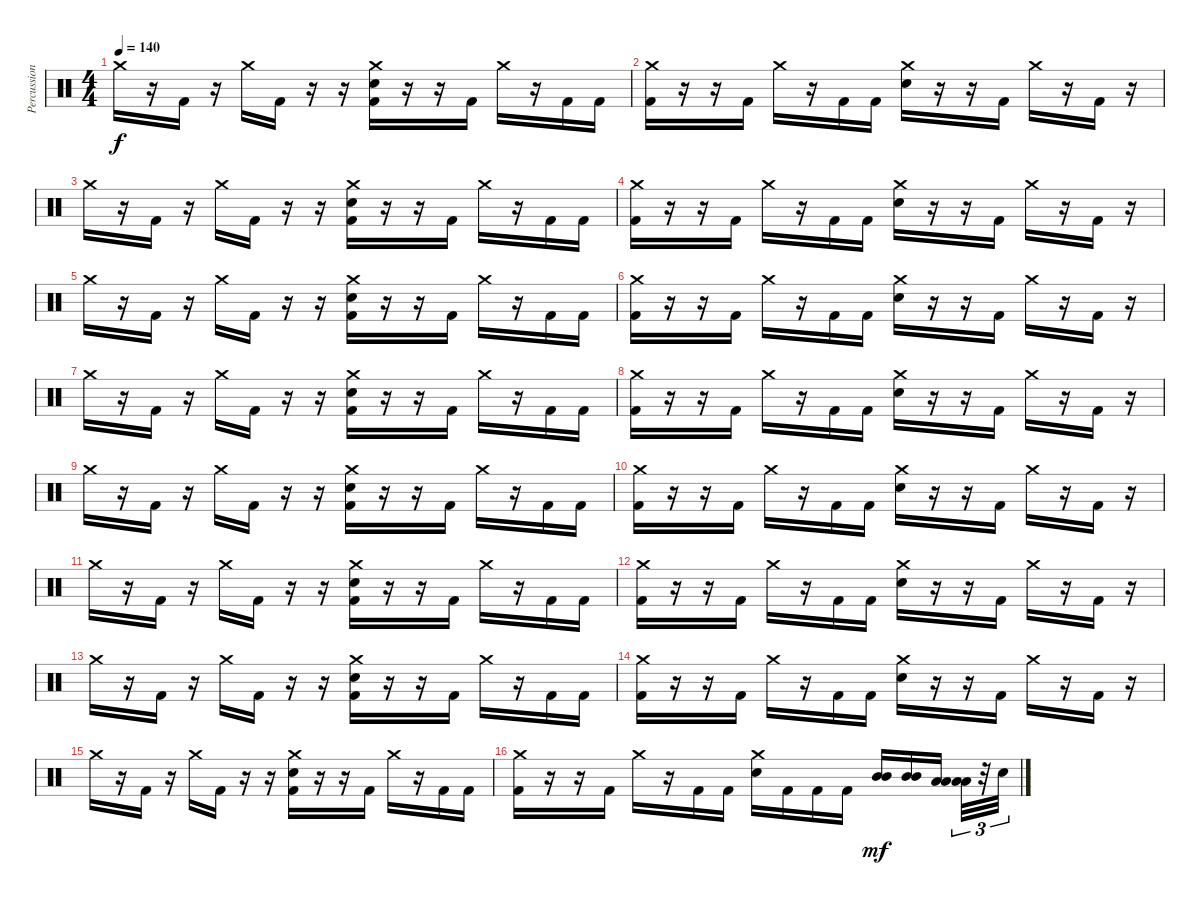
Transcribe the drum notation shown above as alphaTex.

\track ("Percussion" "Percussion") {instrument percussion}
\staff {score}
\articulation defaults
\ts (4 4)
\tempo 140
\clef neutral
\ks c "Crash medium (hit)".16{dy f}
r.16 "Kick (hit) 2".16 r.16 "Crash medium (hit)".16 "Kick (hit) 2".16 r.16 r.16 ("Crash medium (hit)" "Electric Snare (hit)" "Kick (hit) 2").16 r.16 r.16 "Kick (hit) 2".16 "Crash medium (hit)".16 r.16 "Kick (hit) 2".16 "Kick (hit) 2".16 |
("Crash medium (hit)" "Kick (hit) 2").16 r.16 r.16 "Kick (hit) 2".16 "Crash medium (hit)".16 r.16 "Kick (hit) 2".16 "Kick (hit) 2".16 ("Crash medium (hit)" "Electric Snare (hit)").16 r.16 r.16 "Kick (hit) 2".16 "Crash medium (hit)".16 r.16 "Kick (hit) 2".16 r.16 |
"Crash medium (hit)".16 r.16 "Kick (hit) 2".16 r.16 "Crash medium (hit)".16 "Kick (hit) 2".16 r.16 r.16 ("Crash medium (hit)" "Electric Snare (hit)" "Kick (hit) 2").16 r.16 r.16 "Kick (hit) 2".16 "Crash medium (hit)".16 r.16 "Kick (hit) 2".16 "Kick (hit) 2".16 |
("Crash medium (hit)" "Kick (hit) 2").16 r.16 r.16 "Kick (hit) 2".16 "Crash medium (hit)".16 r.16 "Kick (hit) 2".16 "Kick (hit) 2".16 ("Crash medium (hit)" "Electric Snare (hit)").16 r.16 r.16 "Kick (hit) 2".16 "Crash medium (hit)".16 r.16 "Kick (hit) 2".16 r.16 |
"Crash medium (hit)".16 r.16 "Kick (hit) 2".16 r.16 "Crash medium (hit)".16 "Kick (hit) 2".16 r.16 r.16 ("Crash medium (hit)" "Electric Snare (hit)" "Kick (hit) 2").16 r.16 r.16 "Kick (hit) 2".16 "Crash medium (hit)".16 r.16 "Kick (hit) 2".16 "Kick (hit) 2".16 |
("Crash medium (hit)" "Kick (hit) 2").16 r.16 r.16 "Kick (hit) 2".16 "Crash medium (hit)".16 r.16 "Kick (hit) 2".16 "Kick (hit) 2".16 ("Crash medium (hit)" "Electric Snare (hit)").16 r.16 r.16 "Kick (hit) 2".16 "Crash medium (hit)".16 r.16 "Kick (hit) 2".16 r.16 |
"Crash medium (hit)".16 r.16 "Kick (hit) 2".16 r.16 "Crash medium (hit)".16 "Kick (hit) 2".16 r.16 r.16 ("Crash medium (hit)" "Electric Snare (hit)" "Kick (hit) 2").16 r.16 r.16 "Kick (hit) 2".16 "Crash medium (hit)".16 r.16 "Kick (hit) 2".16 "Kick (hit) 2".16 |
("Crash medium (hit)" "Kick (hit) 2").16 r.16 r.16 "Kick (hit) 2".16 "Crash medium (hit)".16 r.16 "Kick (hit) 2".16 "Kick (hit) 2".16 ("Crash medium (hit)" "Electric Snare (hit)").16 r.16 r.16 "Kick (hit) 2".16 "Crash medium (hit)".16 r.16 "Kick (hit) 2".16 r.16 |
"Crash medium (hit)".16 r.16 "Kick (hit) 2".16 r.16 "Crash medium (hit)".16 "Kick (hit) 2".16 r.16 r.16 ("Crash medium (hit)" "Electric Snare (hit)" "Kick (hit) 2").16 r.16 r.16 "Kick (hit) 2".16 "Crash medium (hit)".16 r.16 "Kick (hit) 2".16 "Kick (hit) 2".16 |
("Crash medium (hit)" "Kick (hit) 2").16 r.16 r.16 "Kick (hit) 2".16 "Crash medium (hit)".16 r.16 "Kick (hit) 2".16 "Kick (hit) 2".16 ("Crash medium (hit)" "Electric Snare (hit)").16 r.16 r.16 "Kick (hit) 2".16 "Crash medium (hit)".16 r.16 "Kick (hit) 2".16 r.16 |
"Crash medium (hit)".16 r.16 "Kick (hit) 2".16 r.16 "Crash medium (hit)".16 "Kick (hit) 2".16 r.16 r.16 ("Crash medium (hit)" "Electric Snare (hit)" "Kick (hit) 2").16 r.16 r.16 "Kick (hit) 2".16 "Crash medium (hit)".16 r.16 "Kick (hit) 2".16 "Kick (hit) 2".16 |
("Crash medium (hit)" "Kick (hit) 2").16 r.16 r.16 "Kick (hit) 2".16 "Crash medium (hit)".16 r.16 "Kick (hit) 2".16 "Kick (hit) 2".16 ("Crash medium (hit)" "Electric Snare (hit)").16 r.16 r.16 "Kick (hit) 2".16 "Crash medium (hit)".16 r.16 "Kick (hit) 2".16 r.16 |
"Crash medium (hit)".16 r.16 "Kick (hit) 2".16 r.16 "Crash medium (hit)".16 "Kick (hit) 2".16 r.16 r.16 ("Crash medium (hit)" "Electric Snare (hit)" "Kick (hit) 2").16 r.16 r.16 "Kick (hit) 2".16 "Crash medium (hit)".16 r.16 "Kick (hit) 2".16 "Kick (hit) 2".16 |
("Crash medium (hit)" "Kick (hit) 2").16 r.16 r.16 "Kick (hit) 2".16 "Crash medium (hit)".16 r.16 "Kick (hit) 2".16 "Kick (hit) 2".16 ("Crash medium (hit)" "Electric Snare (hit)").16 r.16 r.16 "Kick (hit) 2".16 "Crash medium (hit)".16 r.16 "Kick (hit) 2".16 r.16 |
"Crash medium (hit)".16 r.16 "Kick (hit) 2".16 r.16 "Crash medium (hit)".16 "Kick (hit) 2".16 r.16 r.16 ("Crash medium (hit)" "Electric Snare (hit)" "Kick (hit) 2").16 r.16 r.16 "Kick (hit) 2".16 "Crash medium (hit)".16 r.16 "Kick (hit) 2".16 "Kick (hit) 2".16 |
("Crash medium (hit)" "Kick (hit) 2").16 r.16 r.16 "Kick (hit) 2".16 "Crash medium (hit)".16 r.16 "Kick (hit) 2".16 "Kick (hit) 2".16 ("Crash medium (hit)" "Electric Snare (hit)").16 "Kick (hit) 2".16 "Kick (hit) 2".16 "Kick (hit) 2".16 ("Mid Tom (hit)" "Mid Tom (hit)").16{dy mf} ("Mid Tom (hit)" "Mid Tom (hit)").16 ("Low Tom (hit)" "Low Tom (hit)").16 ("Low Tom (hit)" "Low Tom (hit)").32{tu (3 2)} r.32{tu (3 2)} "Electric Snare (hit)".32{tu (3 2)}
